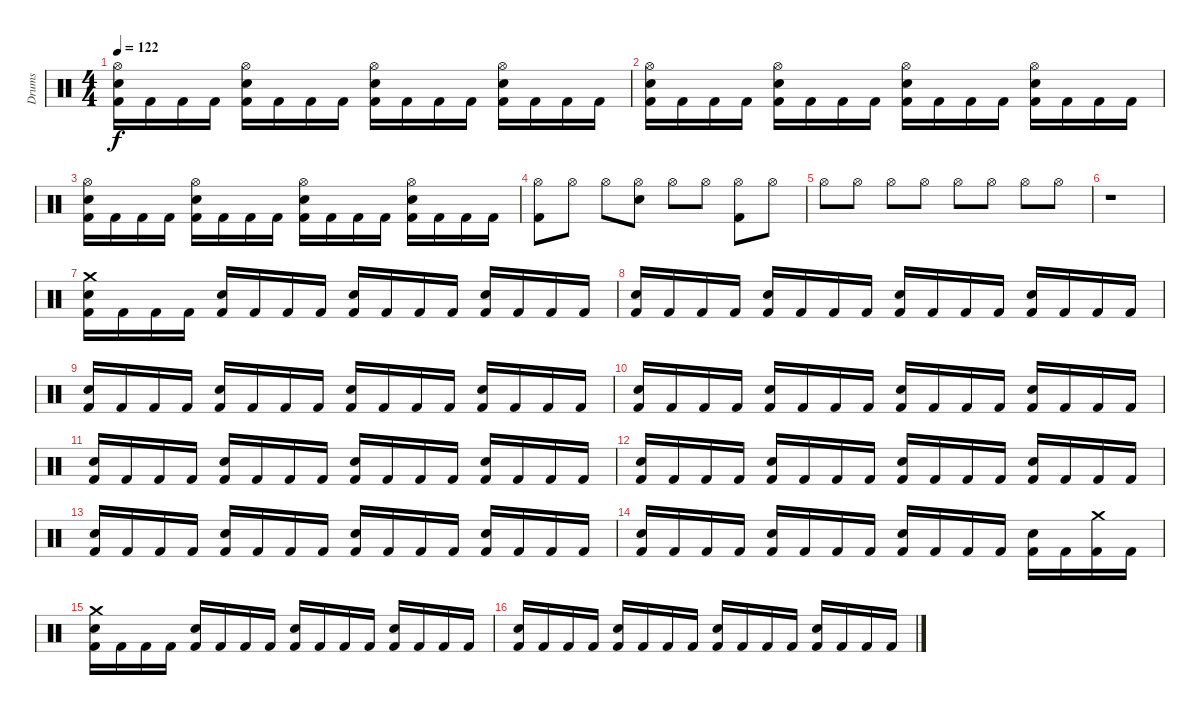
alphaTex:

\track ("Drums" "Drums") {instrument percussion}
\staff {score}
\articulation defaults
\ts (4 4)
\tempo 122
\clef neutral
\ks c
("Hi-Hat (open)" "Electric Snare (hit)" "Kick (hit) 2").16{dy f} "Kick (hit) 2".16 "Kick (hit) 2".16 "Kick (hit) 2".16 ("Hi-Hat (open)" "Electric Snare (hit)" "Kick (hit) 2").16 "Kick (hit) 2".16 "Kick (hit) 2".16 "Kick (hit) 2".16 ("Hi-Hat (open)" "Electric Snare (hit)" "Kick (hit) 2").16 "Kick (hit) 2".16 "Kick (hit) 2".16 "Kick (hit) 2".16 ("Hi-Hat (open)" "Electric Snare (hit)" "Kick (hit) 2").16 "Kick (hit) 2".16 "Kick (hit) 2".16 "Kick (hit) 2".16 |
("Hi-Hat (open)" "Electric Snare (hit)" "Kick (hit) 2").16 "Kick (hit) 2".16 "Kick (hit) 2".16 "Kick (hit) 2".16 ("Hi-Hat (open)" "Electric Snare (hit)" "Kick (hit) 2").16 "Kick (hit) 2".16 "Kick (hit) 2".16 "Kick (hit) 2".16 ("Hi-Hat (open)" "Electric Snare (hit)" "Kick (hit) 2").16 "Kick (hit) 2".16 "Kick (hit) 2".16 "Kick (hit) 2".16 ("Hi-Hat (open)" "Electric Snare (hit)" "Kick (hit) 2").16 "Kick (hit) 2".16 "Kick (hit) 2".16 "Kick (hit) 2".16 |
("Hi-Hat (open)" "Electric Snare (hit)" "Kick (hit) 2").16 "Kick (hit) 2".16 "Kick (hit) 2".16 "Kick (hit) 2".16 ("Hi-Hat (open)" "Electric Snare (hit)" "Kick (hit) 2").16 "Kick (hit) 2".16 "Kick (hit) 2".16 "Kick (hit) 2".16 ("Hi-Hat (open)" "Electric Snare (hit)" "Kick (hit) 2").16 "Kick (hit) 2".16 "Kick (hit) 2".16 "Kick (hit) 2".16 ("Hi-Hat (open)" "Electric Snare (hit)" "Kick (hit) 2").16 "Kick (hit) 2".16 "Kick (hit) 2".16 "Kick (hit) 2".16 |
("Hi-Hat (open)" "Kick (hit) 2").8 "Hi-Hat (open)".8 "Hi-Hat (open)".8 ("Hi-Hat (open)" "Electric Snare (hit)").8 "Hi-Hat (open)".8 "Hi-Hat (open)".8 ("Hi-Hat (open)" "Kick (hit) 2").8 "Hi-Hat (open)".8 |
"Hi-Hat (open)".8 "Hi-Hat (open)".8 "Hi-Hat (open)".8 "Hi-Hat (open)".8 "Hi-Hat (open)".8 "Hi-Hat (open)".8 "Hi-Hat (open)".8 "Hi-Hat (open)".8 |
r.1 |
("Electric Snare (hit)" "Crash medium (hit)" "Kick (hit) 2").16 "Kick (hit) 2".16 "Kick (hit) 2".16 "Kick (hit) 2".16 ("Electric Snare (hit)" "Kick (hit) 2").16 "Kick (hit) 2".16 "Kick (hit) 2".16 "Kick (hit) 2".16 ("Electric Snare (hit)" "Kick (hit) 2").16 "Kick (hit) 2".16 "Kick (hit) 2".16 "Kick (hit) 2".16 ("Electric Snare (hit)" "Kick (hit) 2").16 "Kick (hit) 2".16 "Kick (hit) 2".16 "Kick (hit) 2".16 |
("Electric Snare (hit)" "Kick (hit) 2").16 "Kick (hit) 2".16 "Kick (hit) 2".16 "Kick (hit) 2".16 ("Electric Snare (hit)" "Kick (hit) 2").16 "Kick (hit) 2".16 "Kick (hit) 2".16 "Kick (hit) 2".16 ("Electric Snare (hit)" "Kick (hit) 2").16 "Kick (hit) 2".16 "Kick (hit) 2".16 "Kick (hit) 2".16 ("Electric Snare (hit)" "Kick (hit) 2").16 "Kick (hit) 2".16 "Kick (hit) 2".16 "Kick (hit) 2".16 |
("Electric Snare (hit)" "Kick (hit) 2").16 "Kick (hit) 2".16 "Kick (hit) 2".16 "Kick (hit) 2".16 ("Electric Snare (hit)" "Kick (hit) 2").16 "Kick (hit) 2".16 "Kick (hit) 2".16 "Kick (hit) 2".16 ("Electric Snare (hit)" "Kick (hit) 2").16 "Kick (hit) 2".16 "Kick (hit) 2".16 "Kick (hit) 2".16 ("Electric Snare (hit)" "Kick (hit) 2").16 "Kick (hit) 2".16 "Kick (hit) 2".16 "Kick (hit) 2".16 |
("Electric Snare (hit)" "Kick (hit) 2").16 "Kick (hit) 2".16 "Kick (hit) 2".16 "Kick (hit) 2".16 ("Electric Snare (hit)" "Kick (hit) 2").16 "Kick (hit) 2".16 "Kick (hit) 2".16 "Kick (hit) 2".16 ("Electric Snare (hit)" "Kick (hit) 2").16 "Kick (hit) 2".16 "Kick (hit) 2".16 "Kick (hit) 2".16 ("Electric Snare (hit)" "Kick (hit) 2").16 "Kick (hit) 2".16 "Kick (hit) 2".16 "Kick (hit) 2".16 |
("Electric Snare (hit)" "Kick (hit) 2").16 "Kick (hit) 2".16 "Kick (hit) 2".16 "Kick (hit) 2".16 ("Electric Snare (hit)" "Kick (hit) 2").16 "Kick (hit) 2".16 "Kick (hit) 2".16 "Kick (hit) 2".16 ("Electric Snare (hit)" "Kick (hit) 2").16 "Kick (hit) 2".16 "Kick (hit) 2".16 "Kick (hit) 2".16 ("Electric Snare (hit)" "Kick (hit) 2").16 "Kick (hit) 2".16 "Kick (hit) 2".16 "Kick (hit) 2".16 |
("Electric Snare (hit)" "Kick (hit) 2").16 "Kick (hit) 2".16 "Kick (hit) 2".16 "Kick (hit) 2".16 ("Electric Snare (hit)" "Kick (hit) 2").16 "Kick (hit) 2".16 "Kick (hit) 2".16 "Kick (hit) 2".16 ("Electric Snare (hit)" "Kick (hit) 2").16 "Kick (hit) 2".16 "Kick (hit) 2".16 "Kick (hit) 2".16 ("Electric Snare (hit)" "Kick (hit) 2").16 "Kick (hit) 2".16 "Kick (hit) 2".16 "Kick (hit) 2".16 |
("Electric Snare (hit)" "Kick (hit) 2").16 "Kick (hit) 2".16 "Kick (hit) 2".16 "Kick (hit) 2".16 ("Electric Snare (hit)" "Kick (hit) 2").16 "Kick (hit) 2".16 "Kick (hit) 2".16 "Kick (hit) 2".16 ("Electric Snare (hit)" "Kick (hit) 2").16 "Kick (hit) 2".16 "Kick (hit) 2".16 "Kick (hit) 2".16 ("Electric Snare (hit)" "Kick (hit) 2").16 "Kick (hit) 2".16 "Kick (hit) 2".16 "Kick (hit) 2".16 |
("Electric Snare (hit)" "Kick (hit) 2").16 "Kick (hit) 2".16 "Kick (hit) 2".16 "Kick (hit) 2".16 ("Electric Snare (hit)" "Kick (hit) 2").16 "Kick (hit) 2".16 "Kick (hit) 2".16 "Kick (hit) 2".16 ("Electric Snare (hit)" "Kick (hit) 2").16 "Kick (hit) 2".16 "Kick (hit) 2".16 "Kick (hit) 2".16 ("Electric Snare (hit)" "Kick (hit) 2").16 "Kick (hit) 2".16 ("Crash medium (hit)" "Kick (hit) 2").16 "Kick (hit) 2".16 |
("Electric Snare (hit)" "Crash medium (hit)" "Kick (hit) 2").16 "Kick (hit) 2".16 "Kick (hit) 2".16 "Kick (hit) 2".16 ("Electric Snare (hit)" "Kick (hit) 2").16 "Kick (hit) 2".16 "Kick (hit) 2".16 "Kick (hit) 2".16 ("Electric Snare (hit)" "Kick (hit) 2").16 "Kick (hit) 2".16 "Kick (hit) 2".16 "Kick (hit) 2".16 ("Electric Snare (hit)" "Kick (hit) 2").16 "Kick (hit) 2".16 "Kick (hit) 2".16 "Kick (hit) 2".16 |
("Electric Snare (hit)" "Kick (hit) 2").16 "Kick (hit) 2".16 "Kick (hit) 2".16 "Kick (hit) 2".16 ("Electric Snare (hit)" "Kick (hit) 2").16 "Kick (hit) 2".16 "Kick (hit) 2".16 "Kick (hit) 2".16 ("Electric Snare (hit)" "Kick (hit) 2").16 "Kick (hit) 2".16 "Kick (hit) 2".16 "Kick (hit) 2".16 ("Electric Snare (hit)" "Kick (hit) 2").16 "Kick (hit) 2".16 "Kick (hit) 2".16 "Kick (hit) 2".16
